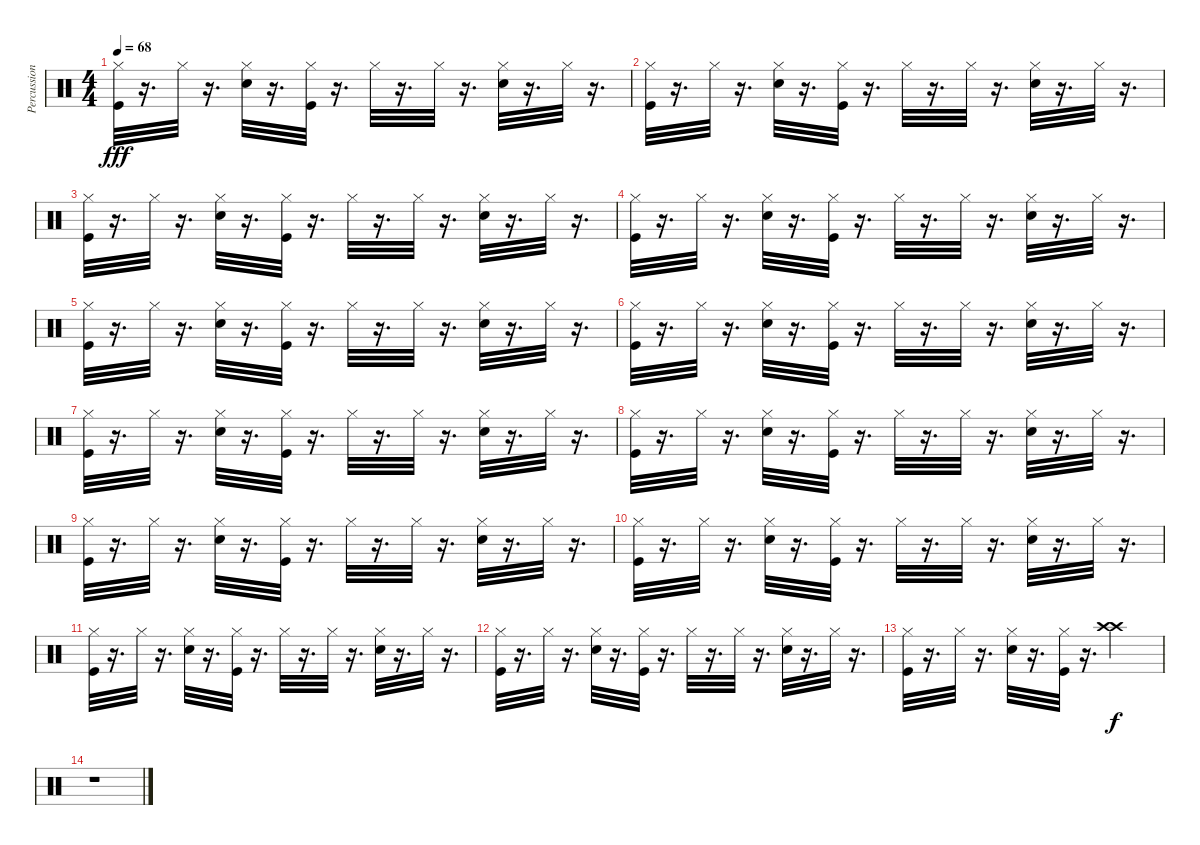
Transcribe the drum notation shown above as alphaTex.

\track ("Percussion" "Percussion") {instrument percussion}
\staff {score}
\articulation defaults
\ts (4 4)
\tempo 68
\clef neutral
\ks c
("Kick (hit)" "Hi-Hat (closed)").32{dy fff} r.16{d} "Hi-Hat (closed)".32 r.16{d} ("Electric Snare (hit)" "Hi-Hat (closed)").32 r.16{d} ("Kick (hit)" "Hi-Hat (closed)").32 r.16{d} "Hi-Hat (closed)".32 r.16{d} "Hi-Hat (closed)".32 r.16{d} ("Electric Snare (hit)" "Hi-Hat (closed)").32 r.16{d} "Hi-Hat (closed)".32 r.16{d} |
("Kick (hit)" "Hi-Hat (closed)").32 r.16{d} "Hi-Hat (closed)".32 r.16{d} ("Electric Snare (hit)" "Hi-Hat (closed)").32 r.16{d} ("Kick (hit)" "Hi-Hat (closed)").32 r.16{d} "Hi-Hat (closed)".32 r.16{d} "Hi-Hat (closed)".32 r.16{d} ("Electric Snare (hit)" "Hi-Hat (closed)").32 r.16{d} "Hi-Hat (closed)".32 r.16{d} |
("Kick (hit)" "Hi-Hat (closed)").32 r.16{d} "Hi-Hat (closed)".32 r.16{d} ("Electric Snare (hit)" "Hi-Hat (closed)").32 r.16{d} ("Kick (hit)" "Hi-Hat (closed)").32 r.16{d} "Hi-Hat (closed)".32 r.16{d} "Hi-Hat (closed)".32 r.16{d} ("Electric Snare (hit)" "Hi-Hat (closed)").32 r.16{d} "Hi-Hat (closed)".32 r.16{d} |
("Kick (hit)" "Hi-Hat (closed)").32 r.16{d} "Hi-Hat (closed)".32 r.16{d} ("Electric Snare (hit)" "Hi-Hat (closed)").32 r.16{d} ("Kick (hit)" "Hi-Hat (closed)").32 r.16{d} "Hi-Hat (closed)".32 r.16{d} "Hi-Hat (closed)".32 r.16{d} ("Electric Snare (hit)" "Hi-Hat (closed)").32 r.16{d} "Hi-Hat (closed)".32 r.16{d} |
("Kick (hit)" "Hi-Hat (closed)").32 r.16{d} "Hi-Hat (closed)".32 r.16{d} ("Electric Snare (hit)" "Hi-Hat (closed)").32 r.16{d} ("Kick (hit)" "Hi-Hat (closed)").32 r.16{d} "Hi-Hat (closed)".32 r.16{d} "Hi-Hat (closed)".32 r.16{d} ("Electric Snare (hit)" "Hi-Hat (closed)").32 r.16{d} "Hi-Hat (closed)".32 r.16{d} |
("Kick (hit)" "Hi-Hat (closed)").32 r.16{d} "Hi-Hat (closed)".32 r.16{d} ("Electric Snare (hit)" "Hi-Hat (closed)").32 r.16{d} ("Kick (hit)" "Hi-Hat (closed)").32 r.16{d} "Hi-Hat (closed)".32 r.16{d} "Hi-Hat (closed)".32 r.16{d} ("Electric Snare (hit)" "Hi-Hat (closed)").32 r.16{d} "Hi-Hat (closed)".32 r.16{d} |
("Kick (hit)" "Hi-Hat (closed)").32 r.16{d} "Hi-Hat (closed)".32 r.16{d} ("Electric Snare (hit)" "Hi-Hat (closed)").32 r.16{d} ("Kick (hit)" "Hi-Hat (closed)").32 r.16{d} "Hi-Hat (closed)".32 r.16{d} "Hi-Hat (closed)".32 r.16{d} ("Electric Snare (hit)" "Hi-Hat (closed)").32 r.16{d} "Hi-Hat (closed)".32 r.16{d} |
("Kick (hit)" "Hi-Hat (closed)").32 r.16{d} "Hi-Hat (closed)".32 r.16{d} ("Electric Snare (hit)" "Hi-Hat (closed)").32 r.16{d} ("Kick (hit)" "Hi-Hat (closed)").32 r.16{d} "Hi-Hat (closed)".32 r.16{d} "Hi-Hat (closed)".32 r.16{d} ("Electric Snare (hit)" "Hi-Hat (closed)").32 r.16{d} "Hi-Hat (closed)".32 r.16{d} |
("Kick (hit)" "Hi-Hat (closed)").32 r.16{d} "Hi-Hat (closed)".32 r.16{d} ("Electric Snare (hit)" "Hi-Hat (closed)").32 r.16{d} ("Kick (hit)" "Hi-Hat (closed)").32 r.16{d} "Hi-Hat (closed)".32 r.16{d} "Hi-Hat (closed)".32 r.16{d} ("Electric Snare (hit)" "Hi-Hat (closed)").32 r.16{d} "Hi-Hat (closed)".32 r.16{d} |
("Kick (hit)" "Hi-Hat (closed)").32 r.16{d} "Hi-Hat (closed)".32 r.16{d} ("Electric Snare (hit)" "Hi-Hat (closed)").32 r.16{d} ("Kick (hit)" "Hi-Hat (closed)").32 r.16{d} "Hi-Hat (closed)".32 r.16{d} "Hi-Hat (closed)".32 r.16{d} ("Electric Snare (hit)" "Hi-Hat (closed)").32 r.16{d} "Hi-Hat (closed)".32 r.16{d} |
("Kick (hit)" "Hi-Hat (closed)").32 r.16{d} "Hi-Hat (closed)".32 r.16{d} ("Electric Snare (hit)" "Hi-Hat (closed)").32 r.16{d} ("Kick (hit)" "Hi-Hat (closed)").32 r.16{d} "Hi-Hat (closed)".32 r.16{d} "Hi-Hat (closed)".32 r.16{d} ("Electric Snare (hit)" "Hi-Hat (closed)").32 r.16{d} "Hi-Hat (closed)".32 r.16{d} |
("Kick (hit)" "Hi-Hat (closed)").32 r.16{d} "Hi-Hat (closed)".32 r.16{d} ("Electric Snare (hit)" "Hi-Hat (closed)").32 r.16{d} ("Kick (hit)" "Hi-Hat (closed)").32 r.16{d} "Hi-Hat (closed)".32 r.16{d} "Hi-Hat (closed)".32 r.16{d} ("Electric Snare (hit)" "Hi-Hat (closed)").32 r.16{d} "Hi-Hat (closed)".32 r.16{d} |
("Kick (hit)" "Hi-Hat (closed)").32 r.16{d} "Hi-Hat (closed)".32 r.16{d} ("Electric Snare (hit)" "Hi-Hat (closed)").32 r.16{d} ("Kick (hit)" "Hi-Hat (closed)").32 r.16{d} ("Crash high (hit)" "Crash high (hit)").2{dy f} |
r.1
